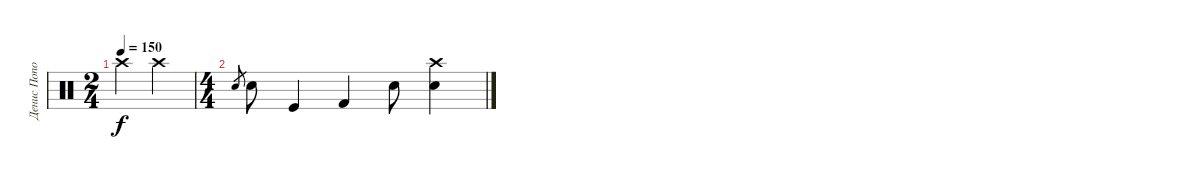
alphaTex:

\track ("Денис Попов" "Денис Попо") {instrument percussion}
\staff
\articulation defaults
\ts (2 4)
\tempo 150
\clef neutral
\ks c "Crash high (hit)".4{dy f} "Crash high (hit)".4
|
\ts (4 4)
"Electric Snare (hit)".8{gr} "Electric Snare (hit)".8 "Kick (hit)".4 "Kick (hit) 2".4 "Snare (hit) 2".8 ("Crash high (hit)" "Electric Snare (hit)").4
